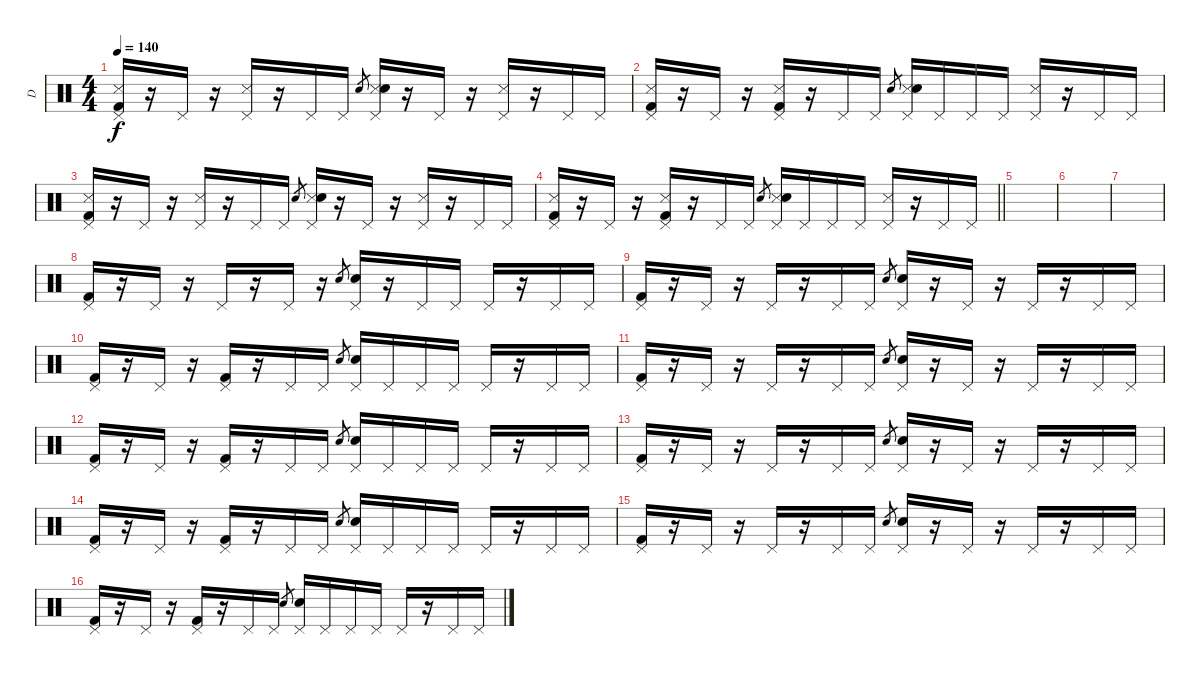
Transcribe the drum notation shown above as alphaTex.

\track ("D" "D") {instrument percussion}
\staff {score}
\articulation defaults
\ts (4 4)
\tempo 140
\clef neutral
\ks c
("Metronome (hit)" "Kick (hit) 2" "Pedal Hi-Hat (hit)").16{dy f} r.16 "Pedal Hi-Hat (hit)".16 r.16 ("Metronome (hit)" "Pedal Hi-Hat (hit)").16 r.16 "Pedal Hi-Hat (hit)".16 "Pedal Hi-Hat (hit)".16 "Electric Snare (hit)".8{gr} ("Metronome (hit)" "Electric Snare (hit)" "Pedal Hi-Hat (hit)").16 r.16 "Pedal Hi-Hat (hit)".16 r.16 ("Metronome (hit)" "Pedal Hi-Hat (hit)").16 r.16 "Pedal Hi-Hat (hit)".16 "Pedal Hi-Hat (hit)".16 |
("Metronome (hit)" "Kick (hit) 2" "Pedal Hi-Hat (hit)").16 r.16 "Pedal Hi-Hat (hit)".16 r.16 ("Metronome (hit)" "Kick (hit) 2" "Pedal Hi-Hat (hit)").16 r.16 "Pedal Hi-Hat (hit)".16 "Pedal Hi-Hat (hit)".16 "Electric Snare (hit)".8{gr} ("Metronome (hit)" "Electric Snare (hit)" "Pedal Hi-Hat (hit)").16 "Pedal Hi-Hat (hit)".16 "Pedal Hi-Hat (hit)".16 "Pedal Hi-Hat (hit)".16 ("Metronome (hit)" "Pedal Hi-Hat (hit)").16 r.16 "Pedal Hi-Hat (hit)".16 "Pedal Hi-Hat (hit)".16 |
("Metronome (hit)" "Kick (hit) 2" "Pedal Hi-Hat (hit)").16 r.16 "Pedal Hi-Hat (hit)".16 r.16 ("Metronome (hit)" "Pedal Hi-Hat (hit)").16 r.16 "Pedal Hi-Hat (hit)".16 "Pedal Hi-Hat (hit)".16 "Electric Snare (hit)".8{gr} ("Metronome (hit)" "Electric Snare (hit)" "Pedal Hi-Hat (hit)").16 r.16 "Pedal Hi-Hat (hit)".16 r.16 ("Metronome (hit)" "Pedal Hi-Hat (hit)").16 r.16 "Pedal Hi-Hat (hit)".16 "Pedal Hi-Hat (hit)".16 |
\barLineRight lightlight
("Metronome (hit)" "Kick (hit) 2" "Pedal Hi-Hat (hit)").16 r.16 "Pedal Hi-Hat (hit)".16 r.16 ("Metronome (hit)" "Kick (hit) 2" "Pedal Hi-Hat (hit)").16 r.16 "Pedal Hi-Hat (hit)".16 "Pedal Hi-Hat (hit)".16 "Electric Snare (hit)".8{gr} ("Metronome (hit)" "Electric Snare (hit)" "Pedal Hi-Hat (hit)").16 "Pedal Hi-Hat (hit)".16 "Pedal Hi-Hat (hit)".16 "Pedal Hi-Hat (hit)".16 ("Metronome (hit)" "Pedal Hi-Hat (hit)").16 r.16 "Pedal Hi-Hat (hit)".16 "Pedal Hi-Hat (hit)".16 |
\section ("" "")
|
|
|
("Kick (hit) 2" "Pedal Hi-Hat (hit)").16 r.16 "Pedal Hi-Hat (hit)".16 r.16 "Pedal Hi-Hat (hit)".16 r.16 "Pedal Hi-Hat (hit)".16 r.16 "Electric Snare (hit)".8{gr} ("Electric Snare (hit)" "Pedal Hi-Hat (hit)").16 r.16 "Pedal Hi-Hat (hit)".16 "Pedal Hi-Hat (hit)".16 "Pedal Hi-Hat (hit)".16 r.16 "Pedal Hi-Hat (hit)".16 "Pedal Hi-Hat (hit)".16 |
("Kick (hit) 2" "Pedal Hi-Hat (hit)").16 r.16 "Pedal Hi-Hat (hit)".16 r.16 "Pedal Hi-Hat (hit)".16 r.16 "Pedal Hi-Hat (hit)".16 "Pedal Hi-Hat (hit)".16 "Electric Snare (hit)".8{gr} ("Electric Snare (hit)" "Pedal Hi-Hat (hit)").16 r.16 "Pedal Hi-Hat (hit)".16 r.16 "Pedal Hi-Hat (hit)".16 r.16 "Pedal Hi-Hat (hit)".16 "Pedal Hi-Hat (hit)".16 |
("Kick (hit) 2" "Pedal Hi-Hat (hit)").16 r.16 "Pedal Hi-Hat (hit)".16 r.16 ("Kick (hit) 2" "Pedal Hi-Hat (hit)").16 r.16 "Pedal Hi-Hat (hit)".16 "Pedal Hi-Hat (hit)".16 "Electric Snare (hit)".8{gr} ("Electric Snare (hit)" "Pedal Hi-Hat (hit)").16 "Pedal Hi-Hat (hit)".16 "Pedal Hi-Hat (hit)".16 "Pedal Hi-Hat (hit)".16 "Pedal Hi-Hat (hit)".16 r.16 "Pedal Hi-Hat (hit)".16 "Pedal Hi-Hat (hit)".16 |
("Kick (hit) 2" "Pedal Hi-Hat (hit)").16 r.16 "Pedal Hi-Hat (hit)".16 r.16 "Pedal Hi-Hat (hit)".16 r.16 "Pedal Hi-Hat (hit)".16 "Pedal Hi-Hat (hit)".16 "Electric Snare (hit)".8{gr} ("Electric Snare (hit)" "Pedal Hi-Hat (hit)").16 r.16 "Pedal Hi-Hat (hit)".16 r.16 "Pedal Hi-Hat (hit)".16 r.16 "Pedal Hi-Hat (hit)".16 "Pedal Hi-Hat (hit)".16 |
("Kick (hit) 2" "Pedal Hi-Hat (hit)").16 r.16 "Pedal Hi-Hat (hit)".16 r.16 ("Kick (hit) 2" "Pedal Hi-Hat (hit)").16 r.16 "Pedal Hi-Hat (hit)".16 "Pedal Hi-Hat (hit)".16 "Electric Snare (hit)".8{gr} ("Electric Snare (hit)" "Pedal Hi-Hat (hit)").16 "Pedal Hi-Hat (hit)".16 "Pedal Hi-Hat (hit)".16 "Pedal Hi-Hat (hit)".16 "Pedal Hi-Hat (hit)".16 r.16 "Pedal Hi-Hat (hit)".16 "Pedal Hi-Hat (hit)".16 |
("Kick (hit) 2" "Pedal Hi-Hat (hit)").16 r.16 "Pedal Hi-Hat (hit)".16 r.16 "Pedal Hi-Hat (hit)".16 r.16 "Pedal Hi-Hat (hit)".16 "Pedal Hi-Hat (hit)".16 "Electric Snare (hit)".8{gr} ("Electric Snare (hit)" "Pedal Hi-Hat (hit)").16 r.16 "Pedal Hi-Hat (hit)".16 r.16 "Pedal Hi-Hat (hit)".16 r.16 "Pedal Hi-Hat (hit)".16 "Pedal Hi-Hat (hit)".16 |
("Kick (hit) 2" "Pedal Hi-Hat (hit)").16 r.16 "Pedal Hi-Hat (hit)".16 r.16 ("Kick (hit) 2" "Pedal Hi-Hat (hit)").16 r.16 "Pedal Hi-Hat (hit)".16 "Pedal Hi-Hat (hit)".16 "Electric Snare (hit)".8{gr} ("Electric Snare (hit)" "Pedal Hi-Hat (hit)").16 "Pedal Hi-Hat (hit)".16 "Pedal Hi-Hat (hit)".16 "Pedal Hi-Hat (hit)".16 "Pedal Hi-Hat (hit)".16 r.16 "Pedal Hi-Hat (hit)".16 "Pedal Hi-Hat (hit)".16 |
("Kick (hit) 2" "Pedal Hi-Hat (hit)").16 r.16 "Pedal Hi-Hat (hit)".16 r.16 "Pedal Hi-Hat (hit)".16 r.16 "Pedal Hi-Hat (hit)".16 "Pedal Hi-Hat (hit)".16 "Electric Snare (hit)".8{gr} ("Electric Snare (hit)" "Pedal Hi-Hat (hit)").16 r.16 "Pedal Hi-Hat (hit)".16 r.16 "Pedal Hi-Hat (hit)".16 r.16 "Pedal Hi-Hat (hit)".16 "Pedal Hi-Hat (hit)".16 |
("Kick (hit) 2" "Pedal Hi-Hat (hit)").16 r.16 "Pedal Hi-Hat (hit)".16 r.16 ("Kick (hit) 2" "Pedal Hi-Hat (hit)").16 r.16 "Pedal Hi-Hat (hit)".16 "Pedal Hi-Hat (hit)".16 "Electric Snare (hit)".8{gr} ("Electric Snare (hit)" "Pedal Hi-Hat (hit)").16 "Pedal Hi-Hat (hit)".16 "Pedal Hi-Hat (hit)".16 "Pedal Hi-Hat (hit)".16 "Pedal Hi-Hat (hit)".16 r.16 "Pedal Hi-Hat (hit)".16 "Pedal Hi-Hat (hit)".16
